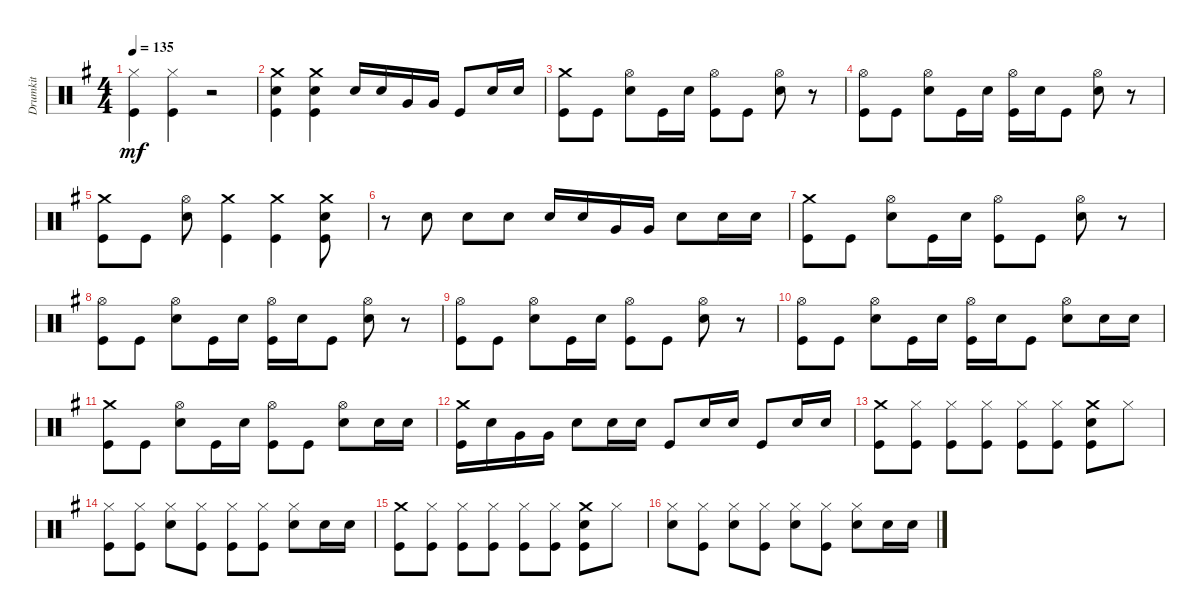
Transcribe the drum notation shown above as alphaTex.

\track ("Drumkit" "Drumkit") {instrument percussion}
\staff {score}
\articulation defaults
\ts (4 4)
\tempo 135
\clef neutral
\ks g
("Kick (hit)" "Hi-Hat (closed)").4{dy mf} ("Kick (hit)" "Hi-Hat (closed)").4 r.2 |
("Snare (hit) 2" "Kick (hit)" "Crash medium (hit)").4 ("Snare (hit) 2" "Kick (hit)" "Crash medium (hit)").4 "Snare (hit) 2".16 "Snare (hit) 2".16 "Very Low Tom (hit)".16 "Very Low Tom (hit)".16 "Kick (hit)".8 "Snare (hit) 2".16 "Snare (hit) 2".16 |
("Crash medium (hit)" "Kick (hit)").8 "Kick (hit)".8 ("Snare (hit) 2" "Hi-Hat (open)").8 "Kick (hit)".16 "Snare (hit) 2".16 ("Kick (hit)" "Hi-Hat (open)").8 "Kick (hit)".8 ("Snare (hit) 2" "Hi-Hat (open)").8 r.8 |
("Kick (hit)" "Hi-Hat (open)").8 "Kick (hit)".8 ("Snare (hit) 2" "Hi-Hat (open)").8 "Kick (hit)".16 "Snare (hit) 2".16 ("Kick (hit)" "Hi-Hat (open)").16 "Snare (hit) 2".16 "Kick (hit)".8 ("Snare (hit) 2" "Hi-Hat (open)").8 r.8 |
("Crash medium (hit)" "Kick (hit)").8 "Kick (hit)".8 ("Snare (hit) 2" "Hi-Hat (open)").8 ("Kick (hit)" "Crash medium (hit)").4 ("Crash medium (hit)" "Kick (hit)").4 ("Kick (hit)" "Snare (hit) 2" "Crash medium (hit)").8 |
r.8 "Snare (hit) 2".8 "Snare (hit) 2".8 "Snare (hit) 2".8 "Snare (hit) 2".16 "Snare (hit) 2".16 "Very Low Tom (hit)".16 "Very Low Tom (hit)".16 "Snare (hit) 2".8 "Snare (hit) 2".16 "Snare (hit) 2".16 |
("Crash medium (hit)" "Kick (hit)").8 "Kick (hit)".8 ("Hi-Hat (open)" "Snare (hit) 2").8 "Kick (hit)".16 "Snare (hit) 2".16 ("Hi-Hat (open)" "Kick (hit)").8 "Kick (hit)".8 ("Hi-Hat (open)" "Snare (hit) 2").8 r.8 |
("Hi-Hat (open)" "Kick (hit)").8 "Kick (hit)".8 ("Hi-Hat (open)" "Snare (hit) 2").8 "Kick (hit)".16 "Snare (hit) 2".16 ("Hi-Hat (open)" "Kick (hit)").16 "Snare (hit) 2".16 "Kick (hit)".8 ("Hi-Hat (open)" "Snare (hit) 2").8 r.8 |
("Kick (hit)" "Hi-Hat (open)").8 "Kick (hit)".8 ("Hi-Hat (open)" "Snare (hit) 2").8 "Kick (hit)".16 "Snare (hit) 2".16 ("Hi-Hat (open)" "Kick (hit)").8 "Kick (hit)".8 ("Hi-Hat (open)" "Snare (hit) 2").8 r.8 |
("Hi-Hat (open)" "Kick (hit)").8 "Kick (hit)".8 ("Hi-Hat (open)" "Snare (hit) 2").8 "Kick (hit)".16 "Snare (hit) 2".16 ("Hi-Hat (open)" "Kick (hit)").16 "Snare (hit) 2".16 "Kick (hit)".8 ("Hi-Hat (open)" "Snare (hit) 2").8 "Snare (hit) 2".16 "Snare (hit) 2".16 |
("Crash medium (hit)" "Kick (hit)").8 "Kick (hit)".8 ("Hi-Hat (open)" "Snare (hit) 2").8 "Kick (hit)".16 "Snare (hit) 2".16 ("Hi-Hat (open)" "Kick (hit)").8 "Kick (hit)".8 ("Hi-Hat (open)" "Snare (hit) 2").8 "Snare (hit) 2".16 "Snare (hit) 2".16 |
("Crash medium (hit)" "Kick (hit)").16 "Snare (hit) 2".16 "Very Low Tom (hit)".16 "Very Low Tom (hit)".16 "Snare (hit) 2".8 "Snare (hit) 2".16 "Snare (hit) 2".16 "Kick (hit)".8 "Snare (hit) 2".16 "Snare (hit) 2".16 "Kick (hit)".8 "Snare (hit) 2".16 "Snare (hit) 2".16 |
("Crash medium (hit)" "Kick (hit)").8 ("Kick (hit)" "Hi-Hat (closed)").8 ("Kick (hit)" "Hi-Hat (closed)").8 ("Kick (hit)" "Hi-Hat (closed)").8 ("Kick (hit)" "Hi-Hat (closed)").8 ("Kick (hit)" "Hi-Hat (closed)").8 ("Kick (hit)" "Snare (hit) 2" "Crash medium (hit)").8 "Hi-Hat (closed)".8 |
("Kick (hit)" "Hi-Hat (closed)").8 ("Kick (hit)" "Hi-Hat (closed)").8 ("Snare (hit) 2" "Hi-Hat (closed)").8 ("Kick (hit)" "Hi-Hat (closed)").8 ("Kick (hit)" "Hi-Hat (closed)").8 ("Kick (hit)" "Hi-Hat (closed)").8 ("Snare (hit) 2" "Hi-Hat (closed)").8 "Snare (hit) 2".16 "Snare (hit) 2".16 |
("Crash medium (hit)" "Kick (hit)").8 ("Kick (hit)" "Hi-Hat (closed)").8 ("Kick (hit)" "Hi-Hat (closed)").8 ("Kick (hit)" "Hi-Hat (closed)").8 ("Kick (hit)" "Hi-Hat (closed)").8 ("Kick (hit)" "Hi-Hat (closed)").8 ("Kick (hit)" "Snare (hit) 2" "Crash medium (hit)").8 "Hi-Hat (closed)".8 |
("Hi-Hat (closed)" "Snare (hit) 2").8 ("Hi-Hat (closed)" "Kick (hit)").8 ("Hi-Hat (closed)" "Snare (hit) 2").8 ("Hi-Hat (closed)" "Kick (hit)").8 ("Hi-Hat (closed)" "Snare (hit) 2").8 ("Hi-Hat (closed)" "Kick (hit)").8 ("Hi-Hat (closed)" "Snare (hit) 2").8 "Snare (hit) 2".16 "Snare (hit) 2".16
